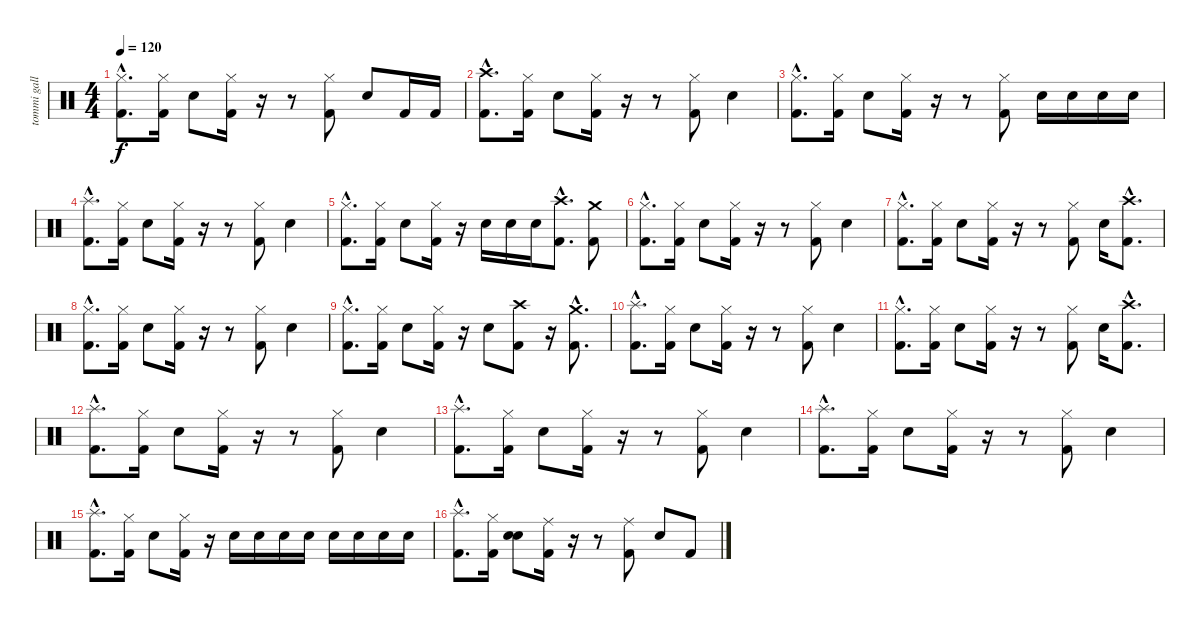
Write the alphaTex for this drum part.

\track ("tommi gallo" "tommi gall") {instrument percussion}
\staff {score}
\articulation defaults
\ts (4 4)
\tempo 120
\clef neutral
\ks c
("Hi-Hat (closed)"{hac} "Kick (hit) 2"{hac}).8{d dy f} ("Hi-Hat (closed)" "Kick (hit) 2").16 "Snare (hit) 2".8 ("Hi-Hat (closed)" "Kick (hit) 2").16 r.16 r.8 ("Hi-Hat (closed)" "Kick (hit) 2").8 "Snare (hit) 2".8 "Kick (hit) 2".16 "Kick (hit) 2".16 |
("Crash high (hit)"{hac} "Kick (hit) 2"{hac}).8{d} ("Hi-Hat (closed)" "Kick (hit) 2").16 "Snare (hit) 2".8 ("Hi-Hat (closed)" "Kick (hit) 2").16 r.16 r.8 ("Hi-Hat (closed)" "Kick (hit) 2").8 "Snare (hit) 2".4 |
("Hi-Hat (closed)"{hac} "Kick (hit) 2"{hac}).8{d} ("Hi-Hat (closed)" "Kick (hit) 2").16 "Snare (hit) 2".8 ("Hi-Hat (closed)" "Kick (hit) 2").16 r.16 r.8 ("Hi-Hat (closed)" "Kick (hit) 2").8 "Snare (hit) 2".16 "Snare (hit) 2".16 "Snare (hit) 2".16 "Snare (hit) 2".16 |
("Splash (hit)"{hac} "Kick (hit) 2"{hac}).8{d} ("Hi-Hat (closed)" "Kick (hit) 2").16 "Snare (hit) 2".8 ("Hi-Hat (closed)" "Kick (hit) 2").16 r.16 r.8 ("Hi-Hat (closed)" "Kick (hit) 2").8 "Snare (hit) 2".4 |
("Hi-Hat (closed)"{hac} "Kick (hit) 2"{hac}).8{d} ("Hi-Hat (closed)" "Kick (hit) 2").16 "Snare (hit) 2".8 ("Hi-Hat (closed)" "Kick (hit) 2").16 r.16 "Snare (hit) 2".16 "Snare (hit) 2".16 "Snare (hit) 2".16 ("Crash high (hit)"{hac} "Kick (hit) 2"{hac}).8{d} ("Crash medium (hit)" "Kick (hit) 2").8 |
("Hi-Hat (closed)"{hac} "Kick (hit) 2"{hac}).8{d} ("Hi-Hat (closed)" "Kick (hit) 2").16 "Snare (hit) 2".8 ("Hi-Hat (closed)" "Kick (hit) 2").16 r.16 r.8 ("Hi-Hat (closed)" "Kick (hit) 2").8 "Snare (hit) 2".4 |
("Hi-Hat (closed)"{hac} "Kick (hit) 2"{hac}).8{d} ("Hi-Hat (closed)" "Kick (hit) 2").16 "Snare (hit) 2".8 ("Hi-Hat (closed)" "Kick (hit) 2").16 r.16 r.8 ("Hi-Hat (closed)" "Kick (hit) 2").8 "Snare (hit) 2".16 ("Crash high (hit)"{hac} "Kick (hit) 2"{hac}).8{d} |
("Hi-Hat (closed)"{hac} "Kick (hit) 2"{hac}).8{d} ("Hi-Hat (closed)" "Kick (hit) 2").16 "Snare (hit) 2".8 ("Hi-Hat (closed)" "Kick (hit) 2").16 r.16 r.8 ("Hi-Hat (closed)" "Kick (hit) 2").8 "Snare (hit) 2".4 |
("Hi-Hat (closed)"{hac} "Kick (hit) 2"{hac}).8{d} ("Hi-Hat (closed)" "Kick (hit) 2").16 "Snare (hit) 2".8 ("Hi-Hat (closed)" "Kick (hit) 2").16 r.16 "Snare (hit) 2".8 ("Crash high (hit)" "Kick (hit) 2").8 r.16 ("Crash medium (hit)"{hac} "Kick (hit) 2"{hac}).8{d} |
("Splash (hit)"{hac} "Kick (hit) 2"{hac}).8{d} ("Hi-Hat (closed)" "Kick (hit) 2").16 "Snare (hit) 2".8 ("Hi-Hat (closed)" "Kick (hit) 2").16 r.16 r.8 ("Hi-Hat (closed)" "Kick (hit) 2").8 "Snare (hit) 2".4 |
("Hi-Hat (closed)"{hac} "Kick (hit) 2"{hac}).8{d} ("Hi-Hat (closed)" "Kick (hit) 2").16 "Snare (hit) 2".8 ("Hi-Hat (closed)" "Kick (hit) 2").16 r.16 r.8 ("Hi-Hat (closed)" "Kick (hit) 2").8 "Snare (hit) 2".16 ("Crash high (hit)"{hac} "Kick (hit) 2"{hac}).8{d} |
("Splash (hit)"{hac} "Kick (hit) 2"{hac}).8{d} ("Hi-Hat (closed)" "Kick (hit) 2").16 "Snare (hit) 2".8 ("Hi-Hat (closed)" "Kick (hit) 2").16 r.16 r.8 ("Hi-Hat (closed)" "Kick (hit) 2").8 "Snare (hit) 2".4 |
("Splash (hit)"{hac} "Kick (hit) 2"{hac}).8{d} ("Hi-Hat (closed)" "Kick (hit) 2").16 "Snare (hit) 2".8 ("Hi-Hat (closed)" "Kick (hit) 2").16 r.16 r.8 ("Hi-Hat (closed)" "Kick (hit) 2").8 "Snare (hit) 2".4 |
("Splash (hit)"{hac} "Kick (hit) 2"{hac}).8{d} ("Hi-Hat (closed)" "Kick (hit) 2").16 "Snare (hit) 2".8 ("Hi-Hat (closed)" "Kick (hit) 2").16 r.16 r.8 ("Hi-Hat (closed)" "Kick (hit) 2").8 "Snare (hit) 2".4 |
("Splash (hit)"{hac} "Kick (hit) 2"{hac}).8{d} ("Hi-Hat (closed)" "Kick (hit) 2").16 "Snare (hit) 2".8 ("Hi-Hat (closed)" "Kick (hit) 2").16 r.16 "Snare (hit) 2".16 "Snare (hit) 2".16 "Snare (hit) 2".16 "Snare (hit) 2".16 "Snare (hit) 2".16 "Snare (hit) 2".16 "Snare (hit) 2".16 "Snare (hit) 2".16 |
("Splash (hit)"{hac} "Kick (hit) 2"{hac}).8{d} ("Hi-Hat (closed)" "Kick (hit) 2").16 ("Snare (hit) 2" "Snare (hit) 2").8 ("Ride (middle)" "Kick (hit) 2").16 r.16 r.8 ("Ride (middle)" "Kick (hit) 2").8 "Snare (hit) 2".8 "Kick (hit) 2".8
